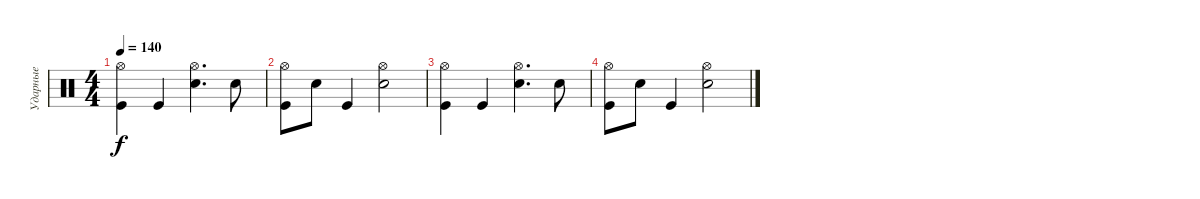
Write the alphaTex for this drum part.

\track ("Ударные" "Ударные") {instrument percussion}
\staff {score}
\articulation defaults
\ts (4 4)
\tempo 140
\clef neutral
\ks c
("Kick (hit)" "Hi-Hat (open)").4{dy f} "Kick (hit)".4 ("Snare (hit) 2" "Hi-Hat (open)").4{d} "Snare (hit) 2".8 |
("Kick (hit)" "Hi-Hat (open)").8 "Snare (hit) 2".8 "Kick (hit)".4 ("Hi-Hat (open)" "Snare (hit) 2").2 |
("Kick (hit)" "Hi-Hat (open)").4 "Kick (hit)".4 ("Snare (hit) 2" "Hi-Hat (open)").4{d} "Snare (hit) 2".8 |
("Kick (hit)" "Hi-Hat (open)").8 "Snare (hit) 2".8 "Kick (hit)".4 ("Hi-Hat (open)" "Snare (hit) 2").2
